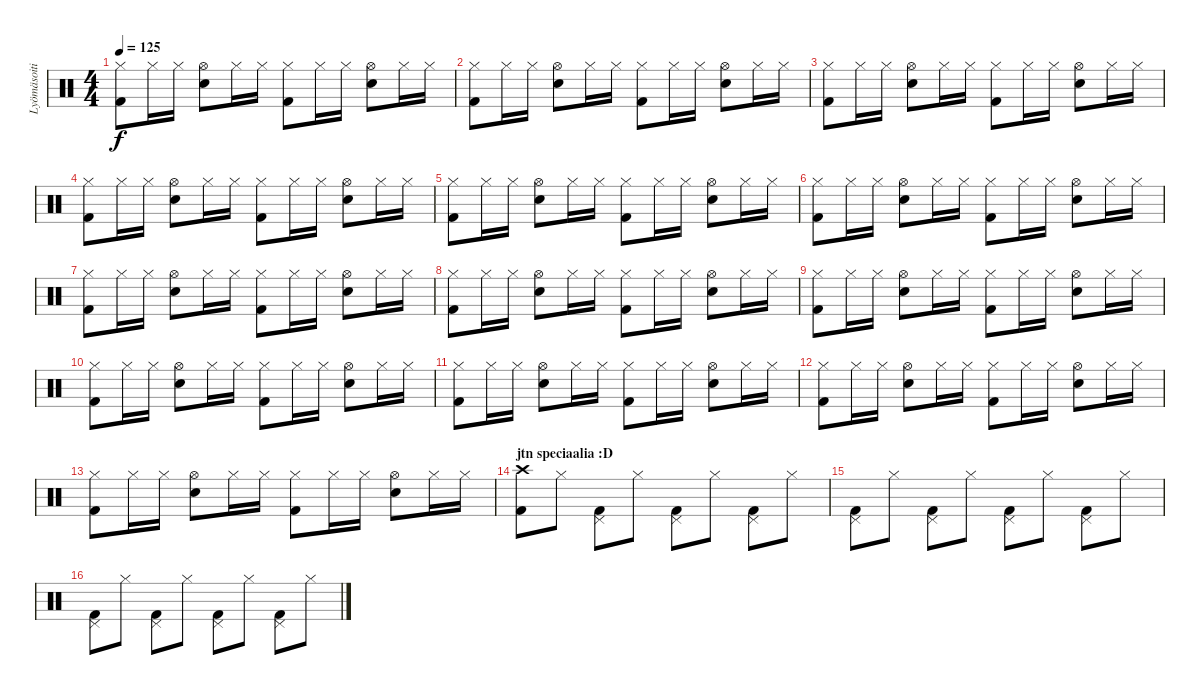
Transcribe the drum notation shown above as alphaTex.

\track ("Lyömäsoitin" "Lyömäsoiti") {instrument percussion}
\staff {score}
\articulation defaults
\ts (4 4)
\tempo 125
\clef neutral
\ks c
("Hi-Hat (closed)" "Kick (hit) 2").8{dy f} "Hi-Hat (closed)".16 "Hi-Hat (closed)".16 ("Hi-Hat (open)" "Snare (hit) 2").8 "Hi-Hat (closed)".16 "Hi-Hat (closed)".16 ("Hi-Hat (closed)" "Kick (hit) 2").8 "Hi-Hat (closed)".16 "Hi-Hat (closed)".16 ("Hi-Hat (open)" "Snare (hit) 2").8 "Hi-Hat (closed)".16 "Hi-Hat (closed)".16 |
("Hi-Hat (closed)" "Kick (hit) 2").8 "Hi-Hat (closed)".16 "Hi-Hat (closed)".16 ("Hi-Hat (open)" "Snare (hit) 2").8 "Hi-Hat (closed)".16 "Hi-Hat (closed)".16 ("Hi-Hat (closed)" "Kick (hit) 2").8 "Hi-Hat (closed)".16 "Hi-Hat (closed)".16 ("Hi-Hat (open)" "Snare (hit) 2").8 "Hi-Hat (closed)".16 "Hi-Hat (closed)".16 |
("Hi-Hat (closed)" "Kick (hit) 2").8 "Hi-Hat (closed)".16 "Hi-Hat (closed)".16 ("Hi-Hat (open)" "Snare (hit) 2").8 "Hi-Hat (closed)".16 "Hi-Hat (closed)".16 ("Hi-Hat (closed)" "Kick (hit) 2").8 "Hi-Hat (closed)".16 "Hi-Hat (closed)".16 ("Hi-Hat (open)" "Snare (hit) 2").8 "Hi-Hat (closed)".16 "Hi-Hat (closed)".16 |
("Hi-Hat (closed)" "Kick (hit) 2").8 "Hi-Hat (closed)".16 "Hi-Hat (closed)".16 ("Hi-Hat (open)" "Snare (hit) 2").8 "Hi-Hat (closed)".16 "Hi-Hat (closed)".16 ("Hi-Hat (closed)" "Kick (hit) 2").8 "Hi-Hat (closed)".16 "Hi-Hat (closed)".16 ("Hi-Hat (open)" "Snare (hit) 2").8 "Hi-Hat (closed)".16 "Hi-Hat (closed)".16 |
("Hi-Hat (closed)" "Kick (hit) 2").8 "Hi-Hat (closed)".16 "Hi-Hat (closed)".16 ("Hi-Hat (open)" "Snare (hit) 2").8 "Hi-Hat (closed)".16 "Hi-Hat (closed)".16 ("Hi-Hat (closed)" "Kick (hit) 2").8 "Hi-Hat (closed)".16 "Hi-Hat (closed)".16 ("Hi-Hat (open)" "Snare (hit) 2").8 "Hi-Hat (closed)".16 "Hi-Hat (closed)".16 |
("Hi-Hat (closed)" "Kick (hit) 2").8 "Hi-Hat (closed)".16 "Hi-Hat (closed)".16 ("Hi-Hat (open)" "Snare (hit) 2").8 "Hi-Hat (closed)".16 "Hi-Hat (closed)".16 ("Hi-Hat (closed)" "Kick (hit) 2").8 "Hi-Hat (closed)".16 "Hi-Hat (closed)".16 ("Hi-Hat (open)" "Snare (hit) 2").8 "Hi-Hat (closed)".16 "Hi-Hat (closed)".16 |
("Hi-Hat (closed)" "Kick (hit) 2").8 "Hi-Hat (closed)".16 "Hi-Hat (closed)".16 ("Hi-Hat (open)" "Snare (hit) 2").8 "Hi-Hat (closed)".16 "Hi-Hat (closed)".16 ("Hi-Hat (closed)" "Kick (hit) 2").8 "Hi-Hat (closed)".16 "Hi-Hat (closed)".16 ("Hi-Hat (open)" "Snare (hit) 2").8 "Hi-Hat (closed)".16 "Hi-Hat (closed)".16 |
("Hi-Hat (closed)" "Kick (hit) 2").8 "Hi-Hat (closed)".16 "Hi-Hat (closed)".16 ("Hi-Hat (open)" "Snare (hit) 2").8 "Hi-Hat (closed)".16 "Hi-Hat (closed)".16 ("Hi-Hat (closed)" "Kick (hit) 2").8 "Hi-Hat (closed)".16 "Hi-Hat (closed)".16 ("Hi-Hat (open)" "Snare (hit) 2").8 "Hi-Hat (closed)".16 "Hi-Hat (closed)".16 |
("Hi-Hat (closed)" "Kick (hit) 2").8 "Hi-Hat (closed)".16 "Hi-Hat (closed)".16 ("Hi-Hat (open)" "Snare (hit) 2").8 "Hi-Hat (closed)".16 "Hi-Hat (closed)".16 ("Hi-Hat (closed)" "Kick (hit) 2").8 "Hi-Hat (closed)".16 "Hi-Hat (closed)".16 ("Hi-Hat (open)" "Snare (hit) 2").8 "Hi-Hat (closed)".16 "Hi-Hat (closed)".16 |
("Hi-Hat (closed)" "Kick (hit) 2").8 "Hi-Hat (closed)".16 "Hi-Hat (closed)".16 ("Hi-Hat (open)" "Snare (hit) 2").8 "Hi-Hat (closed)".16 "Hi-Hat (closed)".16 ("Hi-Hat (closed)" "Kick (hit) 2").8 "Hi-Hat (closed)".16 "Hi-Hat (closed)".16 ("Hi-Hat (open)" "Snare (hit) 2").8 "Hi-Hat (closed)".16 "Hi-Hat (closed)".16 |
("Hi-Hat (closed)" "Kick (hit) 2").8 "Hi-Hat (closed)".16 "Hi-Hat (closed)".16 ("Hi-Hat (open)" "Snare (hit) 2").8 "Hi-Hat (closed)".16 "Hi-Hat (closed)".16 ("Hi-Hat (closed)" "Kick (hit) 2").8 "Hi-Hat (closed)".16 "Hi-Hat (closed)".16 ("Hi-Hat (open)" "Snare (hit) 2").8 "Hi-Hat (closed)".16 "Hi-Hat (closed)".16 |
("Hi-Hat (closed)" "Kick (hit) 2").8 "Hi-Hat (closed)".16 "Hi-Hat (closed)".16 ("Hi-Hat (open)" "Snare (hit) 2").8 "Hi-Hat (closed)".16 "Hi-Hat (closed)".16 ("Hi-Hat (closed)" "Kick (hit) 2").8 "Hi-Hat (closed)".16 "Hi-Hat (closed)".16 ("Hi-Hat (open)" "Snare (hit) 2").8 "Hi-Hat (closed)".16 "Hi-Hat (closed)".16 |
("Hi-Hat (closed)" "Kick (hit) 2").8 "Hi-Hat (closed)".16 "Hi-Hat (closed)".16 ("Hi-Hat (open)" "Snare (hit) 2").8 "Hi-Hat (closed)".16 "Hi-Hat (closed)".16 ("Hi-Hat (closed)" "Kick (hit) 2").8 "Hi-Hat (closed)".16 "Hi-Hat (closed)".16 ("Hi-Hat (open)" "Snare (hit) 2").8 "Hi-Hat (closed)".16 "Hi-Hat (closed)".16 |
\section ("" "jtn speciaalia :D")
("Crash high (hit)" "Kick (hit) 2").8 "Hi-Hat (closed)".8 ("Pedal Hi-Hat (hit)" "Kick (hit) 2").8 "Hi-Hat (closed)".8 ("Pedal Hi-Hat (hit)" "Kick (hit) 2").8 "Hi-Hat (closed)".8 ("Pedal Hi-Hat (hit)" "Kick (hit) 2").8 "Hi-Hat (closed)".8 |
("Pedal Hi-Hat (hit)" "Kick (hit) 2").8 "Hi-Hat (closed)".8 ("Pedal Hi-Hat (hit)" "Kick (hit) 2").8 "Hi-Hat (closed)".8 ("Pedal Hi-Hat (hit)" "Kick (hit) 2").8 "Hi-Hat (closed)".8 ("Pedal Hi-Hat (hit)" "Kick (hit) 2").8 "Hi-Hat (closed)".8 |
("Pedal Hi-Hat (hit)" "Kick (hit) 2").8 "Hi-Hat (closed)".8 ("Pedal Hi-Hat (hit)" "Kick (hit) 2").8 "Hi-Hat (closed)".8 ("Pedal Hi-Hat (hit)" "Kick (hit) 2").8 "Hi-Hat (closed)".8 ("Pedal Hi-Hat (hit)" "Kick (hit) 2").8 "Hi-Hat (closed)".8
